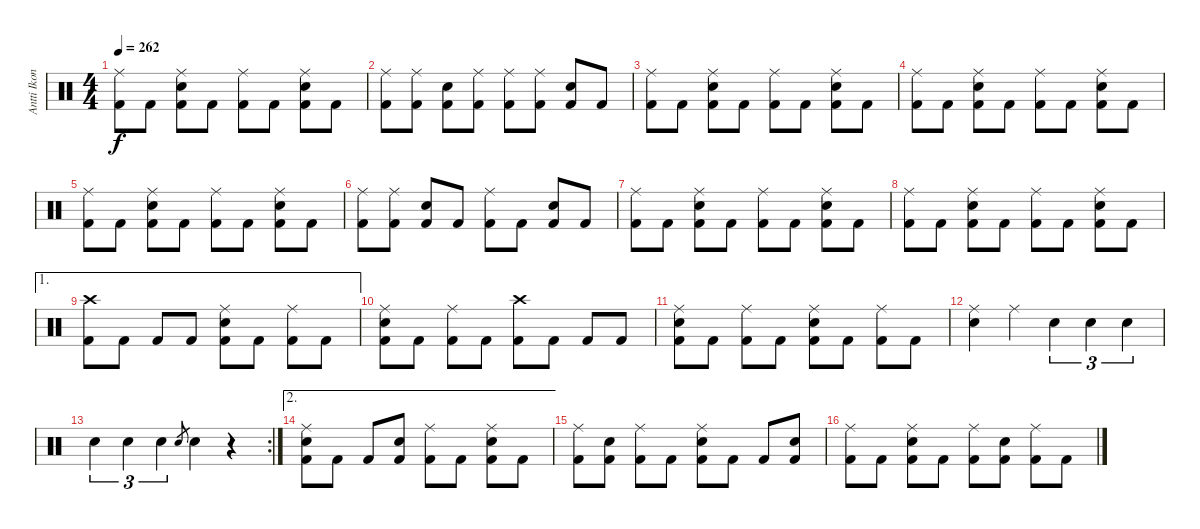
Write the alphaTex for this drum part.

\track ("Antti Ikonen" "Antti Ikon") {instrument percussion}
\staff {score}
\articulation defaults
\ts (4 4)
\tempo 262
\clef neutral
\ks c
("Ride (middle)" "Kick (hit) 2").8{dy f} "Kick (hit) 2".8 ("Ride (middle)" "Electric Snare (hit)" "Kick (hit) 2").8 "Kick (hit) 2".8 ("Ride (middle)" "Kick (hit) 2").8 "Kick (hit) 2".8 ("Ride (middle)" "Electric Snare (hit)" "Kick (hit) 2").8 "Kick (hit) 2".8 |
("Ride (middle)" "Kick (hit) 2").8 ("Ride (middle)" "Kick (hit) 2").8 ("Electric Snare (hit)" "Kick (hit) 2").8 ("Ride (middle)" "Kick (hit) 2").8 ("Ride (middle)" "Kick (hit) 2").8 ("Ride (middle)" "Kick (hit) 2").8 ("Electric Snare (hit)" "Kick (hit) 2").8 "Kick (hit) 2".8 |
("Ride (middle)" "Kick (hit) 2").8 "Kick (hit) 2".8 ("Ride (middle)" "Electric Snare (hit)" "Kick (hit) 2").8 "Kick (hit) 2".8 ("Ride (middle)" "Kick (hit) 2").8 "Kick (hit) 2".8 ("Ride (middle)" "Electric Snare (hit)" "Kick (hit) 2").8 "Kick (hit) 2".8 |
("Ride (middle)" "Kick (hit) 2").8 "Kick (hit) 2".8 ("Ride (middle)" "Electric Snare (hit)" "Kick (hit) 2").8 "Kick (hit) 2".8 ("Ride (middle)" "Kick (hit) 2").8 "Kick (hit) 2".8 ("Ride (middle)" "Electric Snare (hit)" "Kick (hit) 2").8 "Kick (hit) 2".8 |
("Ride (middle)" "Kick (hit) 2").8 "Kick (hit) 2".8 ("Ride (middle)" "Electric Snare (hit)" "Kick (hit) 2").8 "Kick (hit) 2".8 ("Ride (middle)" "Kick (hit) 2").8 "Kick (hit) 2".8 ("Ride (middle)" "Electric Snare (hit)" "Kick (hit) 2").8 "Kick (hit) 2".8 |
("Ride (middle)" "Kick (hit) 2").8 ("Ride (middle)" "Kick (hit) 2").8 ("Electric Snare (hit)" "Kick (hit) 2").8 "Kick (hit) 2".8 ("Ride (middle)" "Kick (hit) 2").8 "Kick (hit) 2".8 ("Electric Snare (hit)" "Kick (hit) 2").8 "Kick (hit) 2".8 |
("Ride (middle)" "Kick (hit) 2").8 "Kick (hit) 2".8 ("Ride (middle)" "Electric Snare (hit)" "Kick (hit) 2").8 "Kick (hit) 2".8 ("Ride (middle)" "Kick (hit) 2").8 "Kick (hit) 2".8 ("Ride (middle)" "Electric Snare (hit)" "Kick (hit) 2").8 "Kick (hit) 2".8 |
("Ride (middle)" "Kick (hit) 2").8 "Kick (hit) 2".8 ("Ride (middle)" "Electric Snare (hit)" "Kick (hit) 2").8 "Kick (hit) 2".8 ("Ride (middle)" "Kick (hit) 2").8 "Kick (hit) 2".8 ("Ride (middle)" "Electric Snare (hit)" "Kick (hit) 2").8 "Kick (hit) 2".8 |
\ae 1
("Crash high (hit)" "Kick (hit) 2").8 "Kick (hit) 2".8 "Kick (hit) 2".8 "Kick (hit) 2".8 ("Ride (middle)" "Electric Snare (hit)" "Kick (hit) 2").8 "Kick (hit) 2".8 ("Ride (middle)" "Kick (hit) 2").8 "Kick (hit) 2".8 |
("Ride (middle)" "Electric Snare (hit)" "Kick (hit) 2").8 "Kick (hit) 2".8 ("Ride (middle)" "Kick (hit) 2").8 "Kick (hit) 2".8 ("Crash high (hit)" "Kick (hit) 2").8 "Kick (hit) 2".8 "Kick (hit) 2".8 "Kick (hit) 2".8 |
("Ride (middle)" "Electric Snare (hit)" "Kick (hit) 2").8 "Kick (hit) 2".8 ("Ride (middle)" "Kick (hit) 2").8 "Kick (hit) 2".8 ("Ride (middle)" "Electric Snare (hit)" "Kick (hit) 2").8 "Kick (hit) 2".8 ("Ride (middle)" "Kick (hit) 2").8 "Kick (hit) 2".8 |
("Ride (middle)" "Electric Snare (hit)").4 "Ride (middle)".4 "Electric Snare (hit)".4{tu (3 2)} "Electric Snare (hit)".4{tu (3 2)} "Electric Snare (hit)".4{tu (3 2)} |
\rc 2 "Electric Snare (hit)".4{tu (3 2)} "Electric Snare (hit)".4{tu (3 2)} "Electric Snare (hit)".4{tu (3 2)} "Electric Snare (hit)".8{gr} "Electric Snare (hit)".4
r.4 |
\ae 2
("Ride (middle)" "Electric Snare (hit)" "Kick (hit) 2").8 "Kick (hit) 2".8 "Kick (hit) 2".8 ("Electric Snare (hit)" "Kick (hit) 2").8 ("Ride (middle)" "Kick (hit) 2").8 "Kick (hit) 2".8 ("Ride (middle)" "Electric Snare (hit)" "Kick (hit) 2").8 "Kick (hit) 2".8 |
("Ride (middle)" "Kick (hit) 2").8 ("Electric Snare (hit)" "Kick (hit) 2").8 ("Ride (middle)" "Kick (hit) 2").8 "Kick (hit) 2".8 ("Ride (middle)" "Electric Snare (hit)" "Kick (hit) 2").8 "Kick (hit) 2".8 "Kick (hit) 2".8 ("Electric Snare (hit)" "Kick (hit) 2").8 |
("Ride (middle)" "Kick (hit) 2").8 "Kick (hit) 2".8 ("Ride (middle)" "Electric Snare (hit)" "Kick (hit) 2").8 "Kick (hit) 2".8 ("Ride (middle)" "Kick (hit) 2").8 ("Electric Snare (hit)" "Kick (hit) 2").8 ("Ride (middle)" "Kick (hit) 2").8 "Kick (hit) 2".8
